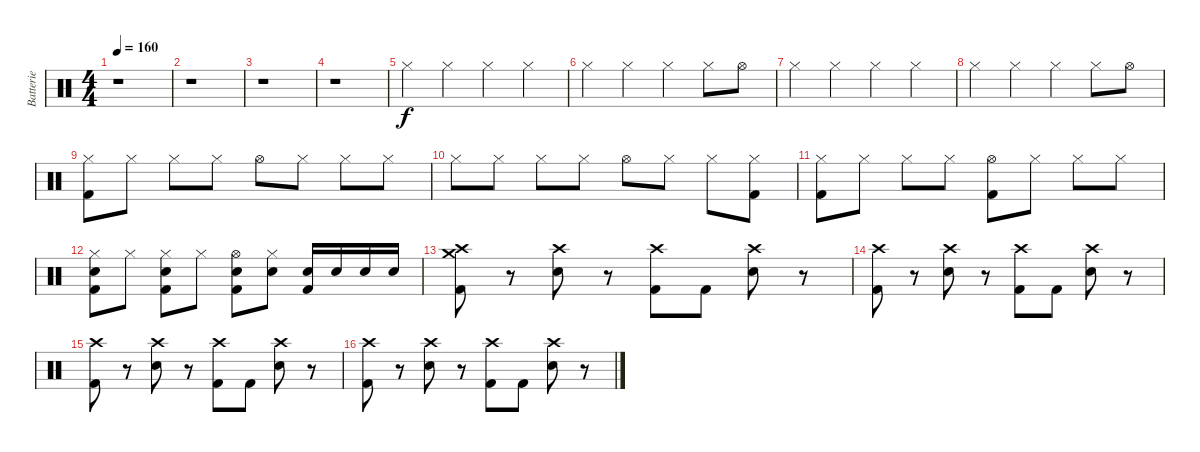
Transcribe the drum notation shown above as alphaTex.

\track ("Batterie" "Batterie") {instrument percussion}
\staff {score}
\articulation defaults
\ts (4 4)
\tempo 160
\clef neutral
\ks c
r.1{dy f} |
r.1 |
r.1 |
r.1 |
"Hi-Hat (closed)".4 "Hi-Hat (closed)".4 "Hi-Hat (closed)".4 "Hi-Hat (closed)".4 |
"Hi-Hat (closed)".4 "Hi-Hat (closed)".4 "Hi-Hat (closed)".4 "Hi-Hat (closed)".8 "Hi-Hat (open)".8 |
"Hi-Hat (closed)".4 "Hi-Hat (closed)".4 "Hi-Hat (closed)".4 "Hi-Hat (closed)".4 |
"Hi-Hat (closed)".4 "Hi-Hat (closed)".4 "Hi-Hat (closed)".4 "Hi-Hat (closed)".8 "Hi-Hat (open)".8 |
("Hi-Hat (closed)" "Kick (hit) 2").8 "Hi-Hat (closed)".8 "Hi-Hat (closed)".8 "Hi-Hat (closed)".8 "Hi-Hat (open)".8 "Hi-Hat (closed)".8 "Hi-Hat (closed)".8 "Hi-Hat (closed)".8 |
"Hi-Hat (closed)".8 "Hi-Hat (closed)".8 "Hi-Hat (closed)".8 "Hi-Hat (closed)".8 "Hi-Hat (open)".8 "Hi-Hat (closed)".8 "Hi-Hat (closed)".8 ("Hi-Hat (closed)" "Kick (hit) 2").8 |
("Hi-Hat (closed)" "Kick (hit) 2").8 "Hi-Hat (closed)".8 "Hi-Hat (closed)".8 "Hi-Hat (closed)".8 ("Hi-Hat (open)" "Kick (hit) 2").8 "Hi-Hat (closed)".8 "Hi-Hat (closed)".8 "Hi-Hat (closed)".8 |
("Hi-Hat (closed)" "Snare (hit) 2" "Kick (hit) 2").8 "Hi-Hat (closed)".8 ("Hi-Hat (closed)" "Snare (hit) 2" "Kick (hit) 2").8 "Hi-Hat (closed)".8 ("Hi-Hat (open)" "Snare (hit) 2" "Kick (hit) 2").8 ("Hi-Hat (closed)" "Snare (hit) 2").8 ("Snare (hit) 2" "Kick (hit) 2").16 "Snare (hit) 2".16 "Snare (hit) 2".16 "Snare (hit) 2".16 |
("Crash high (hit)" "Crash medium (hit)" "Kick (hit) 2").8 r.8 ("Crash high (hit)" "Snare (hit) 2").8 r.8 ("Crash high (hit)" "Kick (hit) 2").8 "Kick (hit) 2".8 ("Crash high (hit)" "Snare (hit) 2").8 r.8 |
("Crash high (hit)" "Kick (hit) 2").8 r.8 ("Crash high (hit)" "Snare (hit) 2").8 r.8 ("Crash high (hit)" "Kick (hit) 2").8 "Kick (hit) 2".8 ("Crash high (hit)" "Snare (hit) 2").8 r.8 |
("Crash high (hit)" "Kick (hit) 2").8 r.8 ("Crash high (hit)" "Snare (hit) 2").8 r.8 ("Crash high (hit)" "Kick (hit) 2").8 "Kick (hit) 2".8 ("Crash high (hit)" "Snare (hit) 2").8 r.8 |
("Crash high (hit)" "Kick (hit) 2").8 r.8 ("Crash high (hit)" "Snare (hit) 2").8 r.8 ("Crash high (hit)" "Kick (hit) 2").8 "Kick (hit) 2".8 ("Crash high (hit)" "Snare (hit) 2").8 r.8
